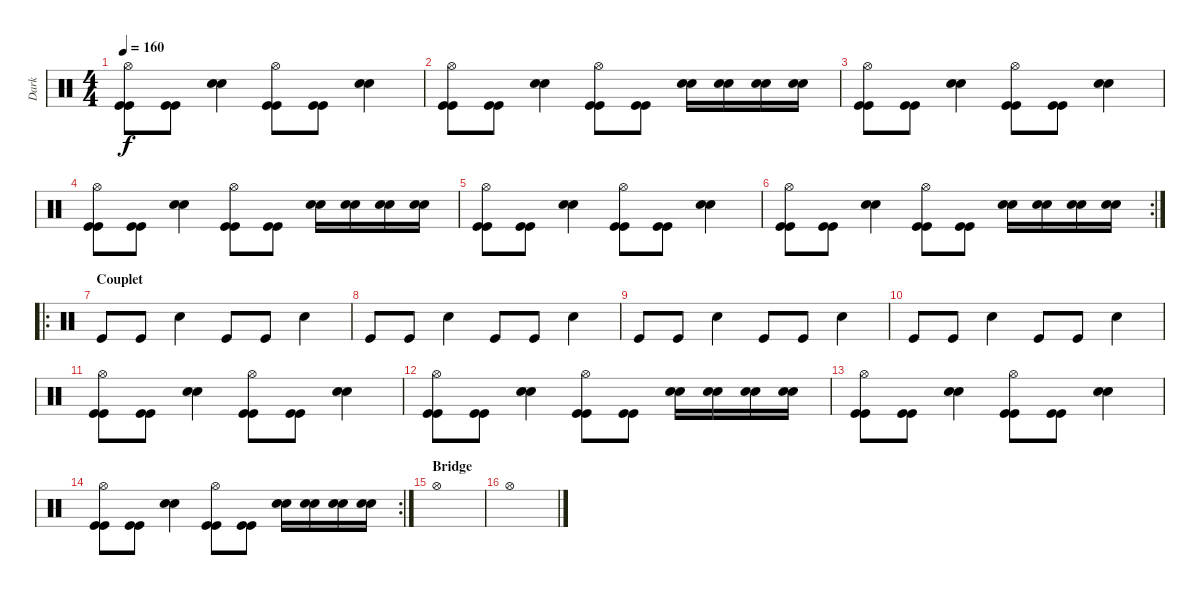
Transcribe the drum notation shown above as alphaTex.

\track ("Dark" "Dark") {instrument percussion}
\staff {score}
\articulation defaults
\ts (4 4)
\tempo 160
\clef neutral
\ks c
("Hi-Hat (open)" "Kick (hit)" "Kick (hit)").8{dy f} ("Kick (hit)" "Kick (hit)").8 ("Snare (hit) 2" "Snare (hit) 2").4 ("Hi-Hat (open)" "Kick (hit)" "Kick (hit)").8 ("Kick (hit)" "Kick (hit)").8 ("Snare (hit) 2" "Snare (hit) 2").4 |
("Hi-Hat (open)" "Kick (hit)" "Kick (hit)").8 ("Kick (hit)" "Kick (hit)").8 ("Snare (hit) 2" "Snare (hit) 2").4 ("Hi-Hat (open)" "Kick (hit)" "Kick (hit)").8 ("Kick (hit)" "Kick (hit)").8 ("Snare (hit) 2" "Snare (hit) 2").16 ("Snare (hit) 2" "Snare (hit) 2").16 ("Snare (hit) 2" "Snare (hit) 2").16 ("Snare (hit) 2" "Snare (hit) 2").16 |
("Hi-Hat (open)" "Kick (hit)" "Kick (hit)").8 ("Kick (hit)" "Kick (hit)").8 ("Snare (hit) 2" "Snare (hit) 2").4 ("Hi-Hat (open)" "Kick (hit)" "Kick (hit)").8 ("Kick (hit)" "Kick (hit)").8 ("Snare (hit) 2" "Snare (hit) 2").4 |
("Hi-Hat (open)" "Kick (hit)" "Kick (hit)").8 ("Kick (hit)" "Kick (hit)").8 ("Snare (hit) 2" "Snare (hit) 2").4 ("Hi-Hat (open)" "Kick (hit)" "Kick (hit)").8 ("Kick (hit)" "Kick (hit)").8 ("Snare (hit) 2" "Snare (hit) 2").16 ("Snare (hit) 2" "Snare (hit) 2").16 ("Snare (hit) 2" "Snare (hit) 2").16 ("Snare (hit) 2" "Snare (hit) 2").16 |
("Hi-Hat (open)" "Kick (hit)" "Kick (hit)").8 ("Kick (hit)" "Kick (hit)").8 ("Snare (hit) 2" "Snare (hit) 2").4 ("Hi-Hat (open)" "Kick (hit)" "Kick (hit)").8 ("Kick (hit)" "Kick (hit)").8 ("Snare (hit) 2" "Snare (hit) 2").4 |
\rc 2
("Hi-Hat (open)" "Kick (hit)" "Kick (hit)").8 ("Kick (hit)" "Kick (hit)").8 ("Snare (hit) 2" "Snare (hit) 2").4 ("Hi-Hat (open)" "Kick (hit)" "Kick (hit)").8 ("Kick (hit)" "Kick (hit)").8 ("Snare (hit) 2" "Snare (hit) 2").16 ("Snare (hit) 2" "Snare (hit) 2").16 ("Snare (hit) 2" "Snare (hit) 2").16 ("Snare (hit) 2" "Snare (hit) 2").16 |
\ro
\section ("" "Couplet")
"Kick (hit)".8 "Kick (hit)".8 "Snare (hit) 2".4 "Kick (hit)".8 "Kick (hit)".8 "Snare (hit) 2".4 |
"Kick (hit)".8 "Kick (hit)".8 "Snare (hit) 2".4 "Kick (hit)".8 "Kick (hit)".8 "Snare (hit) 2".4 |
"Kick (hit)".8 "Kick (hit)".8 "Snare (hit) 2".4 "Kick (hit)".8 "Kick (hit)".8 "Snare (hit) 2".4 |
"Kick (hit)".8 "Kick (hit)".8 "Snare (hit) 2".4 "Kick (hit)".8 "Kick (hit)".8 "Snare (hit) 2".4 |
("Hi-Hat (open)" "Kick (hit)" "Kick (hit)").8 ("Kick (hit)" "Kick (hit)").8 ("Snare (hit) 2" "Snare (hit) 2").4 ("Hi-Hat (open)" "Kick (hit)" "Kick (hit)").8 ("Kick (hit)" "Kick (hit)").8 ("Snare (hit) 2" "Snare (hit) 2").4 |
("Hi-Hat (open)" "Kick (hit)" "Kick (hit)").8 ("Kick (hit)" "Kick (hit)").8 ("Snare (hit) 2" "Snare (hit) 2").4 ("Hi-Hat (open)" "Kick (hit)" "Kick (hit)").8 ("Kick (hit)" "Kick (hit)").8 ("Snare (hit) 2" "Snare (hit) 2").16 ("Snare (hit) 2" "Snare (hit) 2").16 ("Snare (hit) 2" "Snare (hit) 2").16 ("Snare (hit) 2" "Snare (hit) 2").16 |
("Hi-Hat (open)" "Kick (hit)" "Kick (hit)").8 ("Kick (hit)" "Kick (hit)").8 ("Snare (hit) 2" "Snare (hit) 2").4 ("Hi-Hat (open)" "Kick (hit)" "Kick (hit)").8 ("Kick (hit)" "Kick (hit)").8 ("Snare (hit) 2" "Snare (hit) 2").4 |
\rc 2
("Hi-Hat (open)" "Kick (hit)" "Kick (hit)").8 ("Kick (hit)" "Kick (hit)").8 ("Snare (hit) 2" "Snare (hit) 2").4 ("Hi-Hat (open)" "Kick (hit)" "Kick (hit)").8 ("Kick (hit)" "Kick (hit)").8 ("Snare (hit) 2" "Snare (hit) 2").16 ("Snare (hit) 2" "Snare (hit) 2").16 ("Snare (hit) 2" "Snare (hit) 2").16 ("Snare (hit) 2" "Snare (hit) 2").16 |
\section ("" "Bridge")
"Hi-Hat (open)".1 |
"Hi-Hat (open)".1
